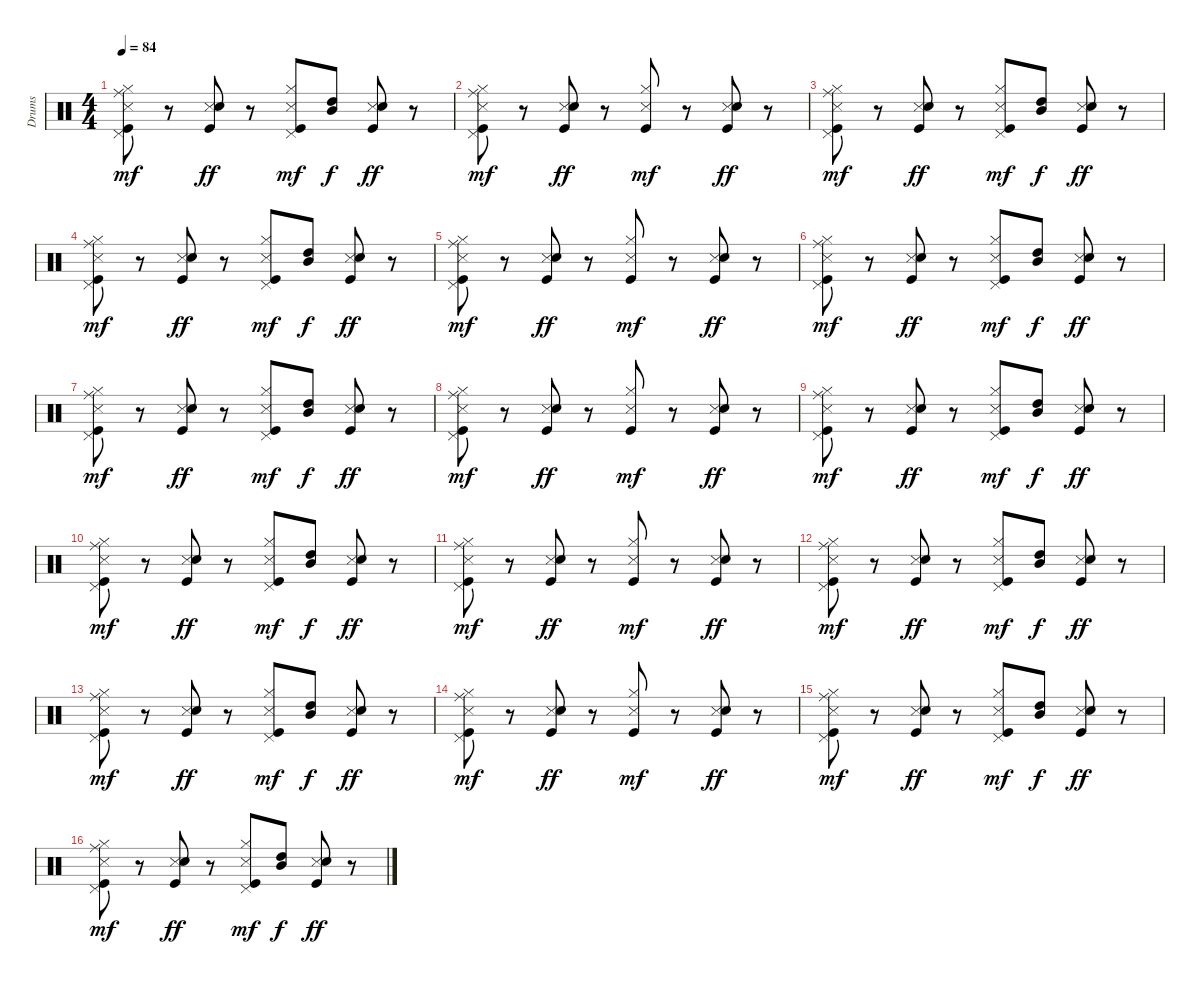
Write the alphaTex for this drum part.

\track ("Drums   " "Drums   ") {instrument percussion}
\staff {score}
\articulation defaults
\ts (4 4)
\tempo 84
\clef neutral
\ks c
("Ride (middle)" "Pedal Hi-Hat (hit)" "Kick (hit)" "Hi-Hat (closed)" "Snare (side stick) 3").8{dy mf} r.8 ("Kick (hit)" "Snare (side stick) 3" "Hand Clap (hit)").8{dy ff} r.8 ("Pedal Hi-Hat (hit)" "Kick (hit)" "Hi-Hat (closed)" "Snare (side stick) 3").8{dy mf} ("Mid Tom (hit)" "High Tom (hit)").8{dy f} ("Kick (hit)" "Snare (side stick) 3" "Hand Clap (hit)").8{dy ff} r.8 |
("Ride (middle)" "Pedal Hi-Hat (hit)" "Kick (hit)" "Hi-Hat (closed)" "Snare (side stick) 3").8{dy mf} r.8 ("Kick (hit)" "Snare (side stick) 3" "Hand Clap (hit)").8{dy ff} r.8 ("Kick (hit)" "Hi-Hat (closed)" "Snare (side stick) 3").8{dy mf} r.8 ("Kick (hit)" "Snare (side stick) 3" "Hand Clap (hit)").8{dy ff} r.8 |
("Ride (middle)" "Pedal Hi-Hat (hit)" "Kick (hit)" "Hi-Hat (closed)" "Snare (side stick) 3").8{dy mf} r.8 ("Kick (hit)" "Snare (side stick) 3" "Hand Clap (hit)").8{dy ff} r.8 ("Pedal Hi-Hat (hit)" "Kick (hit)" "Hi-Hat (closed)" "Snare (side stick) 3").8{dy mf} ("Mid Tom (hit)" "High Tom (hit)").8{dy f} ("Kick (hit)" "Snare (side stick) 3" "Hand Clap (hit)").8{dy ff} r.8 |
("Ride (middle)" "Pedal Hi-Hat (hit)" "Kick (hit)" "Hi-Hat (closed)" "Snare (side stick) 3").8{dy mf} r.8 ("Kick (hit)" "Snare (side stick) 3" "Hand Clap (hit)").8{dy ff} r.8 ("Pedal Hi-Hat (hit)" "Kick (hit)" "Hi-Hat (closed)" "Snare (side stick) 3").8{dy mf} ("Mid Tom (hit)" "High Tom (hit)").8{dy f} ("Kick (hit)" "Snare (side stick) 3" "Hand Clap (hit)").8{dy ff} r.8 |
("Ride (middle)" "Pedal Hi-Hat (hit)" "Kick (hit)" "Hi-Hat (closed)" "Snare (side stick) 3").8{dy mf} r.8 ("Kick (hit)" "Snare (side stick) 3" "Hand Clap (hit)").8{dy ff} r.8 ("Kick (hit)" "Hi-Hat (closed)" "Snare (side stick) 3").8{dy mf} r.8 ("Kick (hit)" "Snare (side stick) 3" "Hand Clap (hit)").8{dy ff} r.8 |
("Ride (middle)" "Pedal Hi-Hat (hit)" "Kick (hit)" "Hi-Hat (closed)" "Snare (side stick) 3").8{dy mf} r.8 ("Kick (hit)" "Snare (side stick) 3" "Hand Clap (hit)").8{dy ff} r.8 ("Pedal Hi-Hat (hit)" "Kick (hit)" "Hi-Hat (closed)" "Snare (side stick) 3").8{dy mf} ("Mid Tom (hit)" "High Tom (hit)").8{dy f} ("Kick (hit)" "Snare (side stick) 3" "Hand Clap (hit)").8{dy ff} r.8 |
("Ride (middle)" "Pedal Hi-Hat (hit)" "Kick (hit)" "Hi-Hat (closed)" "Snare (side stick) 3").8{dy mf} r.8 ("Kick (hit)" "Snare (side stick) 3" "Hand Clap (hit)").8{dy ff} r.8 ("Pedal Hi-Hat (hit)" "Kick (hit)" "Hi-Hat (closed)" "Snare (side stick) 3").8{dy mf} ("Mid Tom (hit)" "High Tom (hit)").8{dy f} ("Kick (hit)" "Snare (side stick) 3" "Hand Clap (hit)").8{dy ff} r.8 |
("Ride (middle)" "Pedal Hi-Hat (hit)" "Kick (hit)" "Hi-Hat (closed)" "Snare (side stick) 3").8{dy mf} r.8 ("Kick (hit)" "Snare (side stick) 3" "Hand Clap (hit)").8{dy ff} r.8 ("Kick (hit)" "Hi-Hat (closed)" "Snare (side stick) 3").8{dy mf} r.8 ("Kick (hit)" "Snare (side stick) 3" "Hand Clap (hit)").8{dy ff} r.8 |
("Ride (middle)" "Pedal Hi-Hat (hit)" "Kick (hit)" "Hi-Hat (closed)" "Snare (side stick) 3").8{dy mf} r.8 ("Kick (hit)" "Snare (side stick) 3" "Hand Clap (hit)").8{dy ff} r.8 ("Pedal Hi-Hat (hit)" "Kick (hit)" "Hi-Hat (closed)" "Snare (side stick) 3").8{dy mf} ("Mid Tom (hit)" "High Tom (hit)").8{dy f} ("Kick (hit)" "Snare (side stick) 3" "Hand Clap (hit)").8{dy ff} r.8 |
("Ride (middle)" "Pedal Hi-Hat (hit)" "Kick (hit)" "Hi-Hat (closed)" "Snare (side stick) 3").8{dy mf} r.8 ("Kick (hit)" "Snare (side stick) 3" "Hand Clap (hit)").8{dy ff} r.8 ("Pedal Hi-Hat (hit)" "Kick (hit)" "Hi-Hat (closed)" "Snare (side stick) 3").8{dy mf} ("Mid Tom (hit)" "High Tom (hit)").8{dy f} ("Kick (hit)" "Snare (side stick) 3" "Hand Clap (hit)").8{dy ff} r.8 |
("Ride (middle)" "Pedal Hi-Hat (hit)" "Kick (hit)" "Hi-Hat (closed)" "Snare (side stick) 3").8{dy mf} r.8 ("Kick (hit)" "Snare (side stick) 3" "Hand Clap (hit)").8{dy ff} r.8 ("Kick (hit)" "Hi-Hat (closed)" "Snare (side stick) 3").8{dy mf} r.8 ("Kick (hit)" "Snare (side stick) 3" "Hand Clap (hit)").8{dy ff} r.8 |
("Ride (middle)" "Pedal Hi-Hat (hit)" "Kick (hit)" "Hi-Hat (closed)" "Snare (side stick) 3").8{dy mf} r.8 ("Kick (hit)" "Snare (side stick) 3" "Hand Clap (hit)").8{dy ff} r.8 ("Pedal Hi-Hat (hit)" "Kick (hit)" "Hi-Hat (closed)" "Snare (side stick) 3").8{dy mf} ("Mid Tom (hit)" "High Tom (hit)").8{dy f} ("Kick (hit)" "Snare (side stick) 3" "Hand Clap (hit)").8{dy ff} r.8 |
("Ride (middle)" "Pedal Hi-Hat (hit)" "Kick (hit)" "Hi-Hat (closed)" "Snare (side stick) 3").8{dy mf} r.8 ("Kick (hit)" "Snare (side stick) 3" "Hand Clap (hit)").8{dy ff} r.8 ("Pedal Hi-Hat (hit)" "Kick (hit)" "Hi-Hat (closed)" "Snare (side stick) 3").8{dy mf} ("Mid Tom (hit)" "High Tom (hit)").8{dy f} ("Kick (hit)" "Snare (side stick) 3" "Hand Clap (hit)").8{dy ff} r.8 |
("Ride (middle)" "Pedal Hi-Hat (hit)" "Kick (hit)" "Hi-Hat (closed)" "Snare (side stick) 3").8{dy mf} r.8 ("Kick (hit)" "Snare (side stick) 3" "Hand Clap (hit)").8{dy ff} r.8 ("Kick (hit)" "Hi-Hat (closed)" "Snare (side stick) 3").8{dy mf} r.8 ("Kick (hit)" "Snare (side stick) 3" "Hand Clap (hit)").8{dy ff} r.8 |
("Ride (middle)" "Pedal Hi-Hat (hit)" "Kick (hit)" "Hi-Hat (closed)" "Snare (side stick) 3").8{dy mf} r.8 ("Kick (hit)" "Snare (side stick) 3" "Hand Clap (hit)").8{dy ff} r.8 ("Pedal Hi-Hat (hit)" "Kick (hit)" "Hi-Hat (closed)" "Snare (side stick) 3").8{dy mf} ("Mid Tom (hit)" "High Tom (hit)").8{dy f} ("Kick (hit)" "Snare (side stick) 3" "Hand Clap (hit)").8{dy ff} r.8 |
("Ride (middle)" "Pedal Hi-Hat (hit)" "Kick (hit)" "Hi-Hat (closed)" "Snare (side stick) 3").8{dy mf} r.8 ("Kick (hit)" "Snare (side stick) 3" "Hand Clap (hit)").8{dy ff} r.8 ("Pedal Hi-Hat (hit)" "Kick (hit)" "Hi-Hat (closed)" "Snare (side stick) 3").8{dy mf} ("Mid Tom (hit)" "High Tom (hit)").8{dy f} ("Kick (hit)" "Snare (side stick) 3" "Hand Clap (hit)").8{dy ff} r.8
